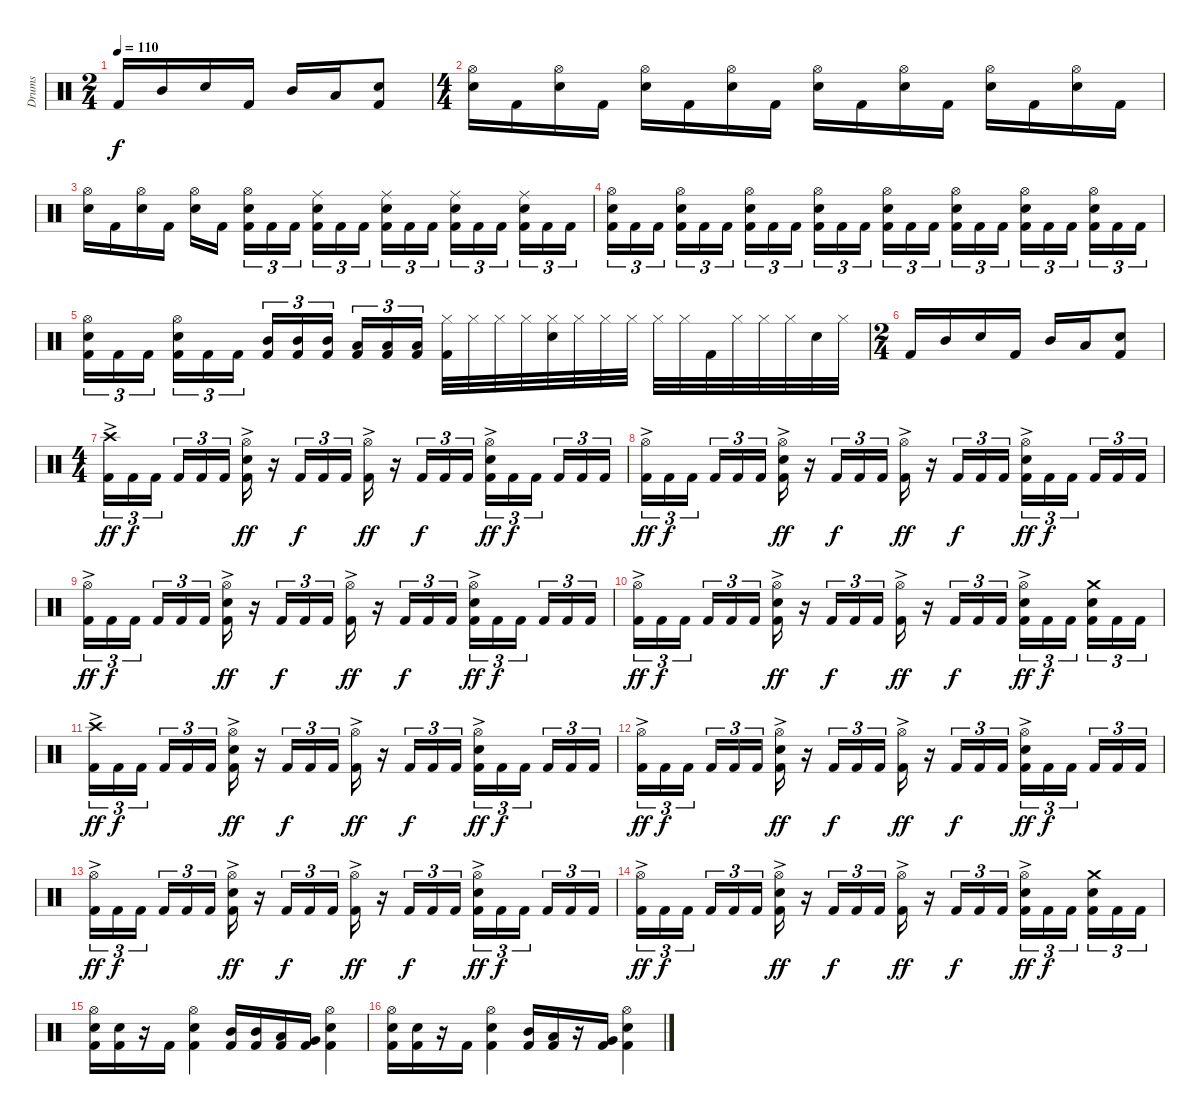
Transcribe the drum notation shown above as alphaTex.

\track ("Drums" "Drums") {instrument percussion}
\staff {score}
\articulation defaults
\ts (2 4)
\tempo 110
\clef neutral
\ks c "Kick (hit) 2".16{dy f} "Mid Tom (hit)".16 "Snare (hit) 2".16 "Kick (hit) 2".16 "Mid Tom (hit)".16 "Low Tom (hit)".16
("Snare (hit) 2" "Kick (hit) 2").8 |
\ts (4 4)
("Hi-Hat (open)" "Snare (hit) 2").16 "Kick (hit) 2".16 ("Hi-Hat (open)" "Snare (hit) 2").16 "Kick (hit) 2".16 ("Hi-Hat (open)" "Snare (hit) 2").16 "Kick (hit) 2".16 ("Hi-Hat (open)" "Snare (hit) 2").16 "Kick (hit) 2".16 ("Hi-Hat (open)" "Snare (hit) 2").16 "Kick (hit) 2".16 ("Hi-Hat (open)" "Snare (hit) 2").16 "Kick (hit) 2".16 ("Hi-Hat (open)" "Snare (hit) 2").16 "Kick (hit) 2".16 ("Hi-Hat (open)" "Snare (hit) 2").16 "Kick (hit) 2".16 |
("Hi-Hat (open)" "Snare (hit) 2").16 "Kick (hit) 2".16 ("Hi-Hat (open)" "Snare (hit) 2").16 "Kick (hit) 2".16 ("Hi-Hat (open)" "Snare (hit) 2").16 "Kick (hit) 2".16{beam splitsecondary} ("Hi-Hat (open)" "Snare (hit) 2" "Kick (hit) 2").16{tu (3 2)} "Kick (hit) 2".16{tu (3 2)} "Kick (hit) 2".16{tu (3 2)} ("Ride (middle)" "Snare (hit) 2" "Kick (hit) 2").16{tu (3 2)} "Kick (hit) 2".16{tu (3 2)} "Kick (hit) 2".16{tu (3 2) beam splitsecondary} ("Ride (middle)" "Snare (hit) 2" "Kick (hit) 2").16{tu (3 2)} "Kick (hit) 2".16{tu (3 2)} "Kick (hit) 2".16{tu (3 2)} ("Ride (middle)" "Snare (hit) 2" "Kick (hit) 2").16{tu (3 2)} "Kick (hit) 2".16{tu (3 2)} "Kick (hit) 2".16{tu (3 2) beam splitsecondary} ("Ride (middle)" "Snare (hit) 2" "Kick (hit) 2").16{tu (3 2)} "Kick (hit) 2".16{tu (3 2)} "Kick (hit) 2".16{tu (3 2)} |
("Hi-Hat (open)" "Snare (hit) 2" "Kick (hit) 2").16{tu (3 2)} "Kick (hit) 2".16{tu (3 2)} "Kick (hit) 2".16{tu (3 2) beam splitsecondary} ("Hi-Hat (open)" "Snare (hit) 2" "Kick (hit) 2").16{tu (3 2)} "Kick (hit) 2".16{tu (3 2)} "Kick (hit) 2".16{tu (3 2)} ("Hi-Hat (open)" "Snare (hit) 2" "Kick (hit) 2").16{tu (3 2)} "Kick (hit) 2".16{tu (3 2)} "Kick (hit) 2".16{tu (3 2) beam splitsecondary} ("Hi-Hat (open)" "Snare (hit) 2" "Kick (hit) 2").16{tu (3 2)} "Kick (hit) 2".16{tu (3 2)} "Kick (hit) 2".16{tu (3 2)} ("Hi-Hat (open)" "Snare (hit) 2" "Kick (hit) 2").16{tu (3 2)} "Kick (hit) 2".16{tu (3 2)} "Kick (hit) 2".16{tu (3 2) beam splitsecondary} ("Hi-Hat (open)" "Snare (hit) 2" "Kick (hit) 2").16{tu (3 2)} "Kick (hit) 2".16{tu (3 2)} "Kick (hit) 2".16{tu (3 2)} ("Hi-Hat (open)" "Snare (hit) 2" "Kick (hit) 2").16{tu (3 2)} "Kick (hit) 2".16{tu (3 2)} "Kick (hit) 2".16{tu (3 2) beam splitsecondary} ("Hi-Hat (open)" "Snare (hit) 2" "Kick (hit) 2").16{tu (3 2)} "Kick (hit) 2".16{tu (3 2)} "Kick (hit) 2".16{tu (3 2)} |
("Hi-Hat (open)" "Snare (hit) 2" "Kick (hit) 2").16{tu (3 2)} "Kick (hit) 2".16{tu (3 2)} "Kick (hit) 2".16{tu (3 2) beam splitsecondary} ("Hi-Hat (open)" "Snare (hit) 2" "Kick (hit) 2").16{tu (3 2)} "Kick (hit) 2".16{tu (3 2)} "Kick (hit) 2".16{tu (3 2)} ("Mid Tom (hit)" "Kick (hit) 2").16{tu (3 2)} ("Mid Tom (hit)" "Kick (hit) 2").16{tu (3 2)} ("Mid Tom (hit)" "Kick (hit) 2").16{tu (3 2) beam splitsecondary} ("Low Tom (hit)" "Kick (hit) 2").16{tu (3 2)} ("Low Tom (hit)" "Kick (hit) 2").16{tu (3 2)} ("Low Tom (hit)" "Kick (hit) 2").16{tu (3 2)} ("Hi-Hat (closed)" "Kick (hit) 2").32 "Hi-Hat (closed)".32 "Hi-Hat (closed)".32 "Hi-Hat (closed)".32 ("Hi-Hat (closed)" "Snare (hit) 2").32 "Hi-Hat (closed)".32 "Hi-Hat (closed)".32 "Hi-Hat (closed)".32 "Hi-Hat (closed)".32 "Hi-Hat (closed)".32 "Kick (hit) 2".32 "Hi-Hat (closed)".32 "Hi-Hat (closed)".32 "Hi-Hat (closed)".32 "Snare (hit) 2".32 "Hi-Hat (closed)".32 |
\ts (2 4)
"Kick (hit) 2".16 "Mid Tom (hit)".16 "Snare (hit) 2".16 "Kick (hit) 2".16 "Mid Tom (hit)".16 "Low Tom (hit)".16 ("Snare (hit) 2" "Kick (hit) 2").8 |
\ts (4 4)
("Crash high (hit)" "Kick (hit) 2"{ac}).16{tu (3 2) dy ff} "Kick (hit) 2".16{tu (3 2) dy f} "Kick (hit) 2".16{tu (3 2) beam splitsecondary} "Kick (hit) 2".16{tu (3 2)} "Kick (hit) 2".16{tu (3 2)} "Kick (hit) 2".16{tu (3 2)} ("Hi-Hat (open)" "Snare (hit) 2" "Kick (hit) 2"{ac}).16{dy ff} r.16 "Kick (hit) 2".16{tu (3 2) dy f} "Kick (hit) 2".16{tu (3 2)} "Kick (hit) 2".16{tu (3 2)} ("Hi-Hat (open)" "Kick (hit) 2"{ac}).16{dy ff} r.16 "Kick (hit) 2".16{tu (3 2) dy f} "Kick (hit) 2".16{tu (3 2)} "Kick (hit) 2".16{tu (3 2)} ("Hi-Hat (open)" "Snare (hit) 2" "Kick (hit) 2"{ac}).16{tu (3 2) dy ff} "Kick (hit) 2".16{tu (3 2) dy f} "Kick (hit) 2".16{tu (3 2) beam splitsecondary} "Kick (hit) 2".16{tu (3 2)} "Kick (hit) 2".16{tu (3 2)} "Kick (hit) 2".16{tu (3 2)} |
("Hi-Hat (open)" "Kick (hit) 2"{ac}).16{tu (3 2) dy ff} "Kick (hit) 2".16{tu (3 2) dy f} "Kick (hit) 2".16{tu (3 2) beam splitsecondary} "Kick (hit) 2".16{tu (3 2)} "Kick (hit) 2".16{tu (3 2)} "Kick (hit) 2".16{tu (3 2)} ("Hi-Hat (open)" "Snare (hit) 2" "Kick (hit) 2"{ac}).16{dy ff} r.16 "Kick (hit) 2".16{tu (3 2) dy f} "Kick (hit) 2".16{tu (3 2)} "Kick (hit) 2".16{tu (3 2)} ("Hi-Hat (open)" "Kick (hit) 2"{ac}).16{dy ff} r.16 "Kick (hit) 2".16{tu (3 2) dy f} "Kick (hit) 2".16{tu (3 2)} "Kick (hit) 2".16{tu (3 2)} ("Hi-Hat (open)" "Snare (hit) 2" "Kick (hit) 2"{ac}).16{tu (3 2) dy ff} "Kick (hit) 2".16{tu (3 2) dy f} "Kick (hit) 2".16{tu (3 2) beam splitsecondary} "Kick (hit) 2".16{tu (3 2)} "Kick (hit) 2".16{tu (3 2)} "Kick (hit) 2".16{tu (3 2)} |
("Hi-Hat (open)" "Kick (hit) 2"{ac}).16{tu (3 2) dy ff} "Kick (hit) 2".16{tu (3 2) dy f} "Kick (hit) 2".16{tu (3 2) beam splitsecondary} "Kick (hit) 2".16{tu (3 2)} "Kick (hit) 2".16{tu (3 2)} "Kick (hit) 2".16{tu (3 2)} ("Hi-Hat (open)" "Snare (hit) 2" "Kick (hit) 2"{ac}).16{dy ff} r.16 "Kick (hit) 2".16{tu (3 2) dy f} "Kick (hit) 2".16{tu (3 2)} "Kick (hit) 2".16{tu (3 2)} ("Hi-Hat (open)" "Kick (hit) 2"{ac}).16{dy ff} r.16 "Kick (hit) 2".16{tu (3 2) dy f} "Kick (hit) 2".16{tu (3 2)} "Kick (hit) 2".16{tu (3 2)} ("Hi-Hat (open)" "Snare (hit) 2" "Kick (hit) 2"{ac}).16{tu (3 2) dy ff} "Kick (hit) 2".16{tu (3 2) dy f} "Kick (hit) 2".16{tu (3 2) beam splitsecondary} "Kick (hit) 2".16{tu (3 2)} "Kick (hit) 2".16{tu (3 2)} "Kick (hit) 2".16{tu (3 2)} |
("Hi-Hat (open)" "Kick (hit) 2"{ac}).16{tu (3 2) dy ff} "Kick (hit) 2".16{tu (3 2) dy f} "Kick (hit) 2".16{tu (3 2) beam splitsecondary} "Kick (hit) 2".16{tu (3 2)} "Kick (hit) 2".16{tu (3 2)} "Kick (hit) 2".16{tu (3 2)} ("Hi-Hat (open)" "Snare (hit) 2" "Kick (hit) 2"{ac}).16{dy ff} r.16 "Kick (hit) 2".16{tu (3 2) dy f} "Kick (hit) 2".16{tu (3 2)} "Kick (hit) 2".16{tu (3 2)} ("Hi-Hat (open)" "Kick (hit) 2"{ac}).16{dy ff} r.16 "Kick (hit) 2".16{tu (3 2) dy f} "Kick (hit) 2".16{tu (3 2)} "Kick (hit) 2".16{tu (3 2)} ("Hi-Hat (open)" "Snare (hit) 2" "Kick (hit) 2"{ac}).16{tu (3 2) dy ff} "Kick (hit) 2".16{tu (3 2) dy f} "Kick (hit) 2".16{tu (3 2) beam splitsecondary} ("Crash medium (hit)" "Snare (hit) 2" "Kick (hit) 2").16{tu (3 2)} "Kick (hit) 2".16{tu (3 2)} "Kick (hit) 2".16{tu (3 2)} |
("Crash high (hit)" "Kick (hit) 2"{ac}).16{tu (3 2) dy ff} "Kick (hit) 2".16{tu (3 2) dy f} "Kick (hit) 2".16{tu (3 2) beam splitsecondary} "Kick (hit) 2".16{tu (3 2)} "Kick (hit) 2".16{tu (3 2)} "Kick (hit) 2".16{tu (3 2)} ("Hi-Hat (open)" "Snare (hit) 2" "Kick (hit) 2"{ac}).16{dy ff} r.16 "Kick (hit) 2".16{tu (3 2) dy f} "Kick (hit) 2".16{tu (3 2)} "Kick (hit) 2".16{tu (3 2)} ("Hi-Hat (open)" "Kick (hit) 2"{ac}).16{dy ff} r.16 "Kick (hit) 2".16{tu (3 2) dy f} "Kick (hit) 2".16{tu (3 2)} "Kick (hit) 2".16{tu (3 2)} ("Hi-Hat (open)" "Snare (hit) 2" "Kick (hit) 2"{ac}).16{tu (3 2) dy ff} "Kick (hit) 2".16{tu (3 2) dy f} "Kick (hit) 2".16{tu (3 2) beam splitsecondary} "Kick (hit) 2".16{tu (3 2)} "Kick (hit) 2".16{tu (3 2)} "Kick (hit) 2".16{tu (3 2)} |
("Hi-Hat (open)" "Kick (hit) 2"{ac}).16{tu (3 2) dy ff} "Kick (hit) 2".16{tu (3 2) dy f} "Kick (hit) 2".16{tu (3 2) beam splitsecondary} "Kick (hit) 2".16{tu (3 2)} "Kick (hit) 2".16{tu (3 2)} "Kick (hit) 2".16{tu (3 2)} ("Hi-Hat (open)" "Snare (hit) 2" "Kick (hit) 2"{ac}).16{dy ff} r.16 "Kick (hit) 2".16{tu (3 2) dy f} "Kick (hit) 2".16{tu (3 2)} "Kick (hit) 2".16{tu (3 2)} ("Hi-Hat (open)" "Kick (hit) 2"{ac}).16{dy ff} r.16 "Kick (hit) 2".16{tu (3 2) dy f} "Kick (hit) 2".16{tu (3 2)} "Kick (hit) 2".16{tu (3 2)} ("Hi-Hat (open)" "Snare (hit) 2" "Kick (hit) 2"{ac}).16{tu (3 2) dy ff} "Kick (hit) 2".16{tu (3 2) dy f} "Kick (hit) 2".16{tu (3 2) beam splitsecondary} "Kick (hit) 2".16{tu (3 2)} "Kick (hit) 2".16{tu (3 2)} "Kick (hit) 2".16{tu (3 2)} |
("Hi-Hat (open)" "Kick (hit) 2"{ac}).16{tu (3 2) dy ff} "Kick (hit) 2".16{tu (3 2) dy f} "Kick (hit) 2".16{tu (3 2) beam splitsecondary} "Kick (hit) 2".16{tu (3 2)} "Kick (hit) 2".16{tu (3 2)} "Kick (hit) 2".16{tu (3 2)} ("Hi-Hat (open)" "Snare (hit) 2" "Kick (hit) 2"{ac}).16{dy ff} r.16 "Kick (hit) 2".16{tu (3 2) dy f} "Kick (hit) 2".16{tu (3 2)} "Kick (hit) 2".16{tu (3 2)} ("Hi-Hat (open)" "Kick (hit) 2"{ac}).16{dy ff} r.16 "Kick (hit) 2".16{tu (3 2) dy f} "Kick (hit) 2".16{tu (3 2)} "Kick (hit) 2".16{tu (3 2)} ("Hi-Hat (open)" "Snare (hit) 2" "Kick (hit) 2"{ac}).16{tu (3 2) dy ff} "Kick (hit) 2".16{tu (3 2) dy f} "Kick (hit) 2".16{tu (3 2) beam splitsecondary} "Kick (hit) 2".16{tu (3 2)} "Kick (hit) 2".16{tu (3 2)} "Kick (hit) 2".16{tu (3 2)} |
("Hi-Hat (open)" "Kick (hit) 2"{ac}).16{tu (3 2) dy ff} "Kick (hit) 2".16{tu (3 2) dy f} "Kick (hit) 2".16{tu (3 2) beam splitsecondary} "Kick (hit) 2".16{tu (3 2)} "Kick (hit) 2".16{tu (3 2)} "Kick (hit) 2".16{tu (3 2)} ("Hi-Hat (open)" "Snare (hit) 2" "Kick (hit) 2"{ac}).16{dy ff} r.16 "Kick (hit) 2".16{tu (3 2) dy f} "Kick (hit) 2".16{tu (3 2)} "Kick (hit) 2".16{tu (3 2)} ("Hi-Hat (open)" "Kick (hit) 2"{ac}).16{dy ff} r.16 "Kick (hit) 2".16{tu (3 2) dy f} "Kick (hit) 2".16{tu (3 2)} "Kick (hit) 2".16{tu (3 2)} ("Hi-Hat (open)" "Snare (hit) 2" "Kick (hit) 2"{ac}).16{tu (3 2) dy ff} "Kick (hit) 2".16{tu (3 2) dy f} "Kick (hit) 2".16{tu (3 2) beam splitsecondary} ("Crash medium (hit)" "Snare (hit) 2" "Kick (hit) 2").16{tu (3 2)} "Kick (hit) 2".16{tu (3 2)} "Kick (hit) 2".16{tu (3 2)} |
("Hi-Hat (open)" "Snare (hit) 2" "Kick (hit) 2").16 ("Snare (hit) 2" "Kick (hit) 2").16 r.16 "Kick (hit) 2".16 ("Hi-Hat (open)" "Snare (hit) 2" "Kick (hit) 2").4 ("Mid Tom (hit)" "Kick (hit) 2").16 ("Mid Tom (hit)" "Kick (hit) 2").16 ("Low Tom (hit)" "Kick (hit) 2").16 ("Very Low Tom (hit)" "Kick (hit) 2").16 ("Hi-Hat (open)" "Snare (hit) 2" "Kick (hit) 2").4 |
("Hi-Hat (open)" "Snare (hit) 2" "Kick (hit) 2").16 ("Snare (hit) 2" "Kick (hit) 2").16 r.16 "Kick (hit) 2".16 ("Hi-Hat (open)" "Snare (hit) 2" "Kick (hit) 2").4 ("Mid Tom (hit)" "Kick (hit) 2").16 ("Low Tom (hit)" "Kick (hit) 2").16 r.16 ("Very Low Tom (hit)" "Kick (hit) 2").16 ("Hi-Hat (open)" "Snare (hit) 2" "Kick (hit) 2").4
